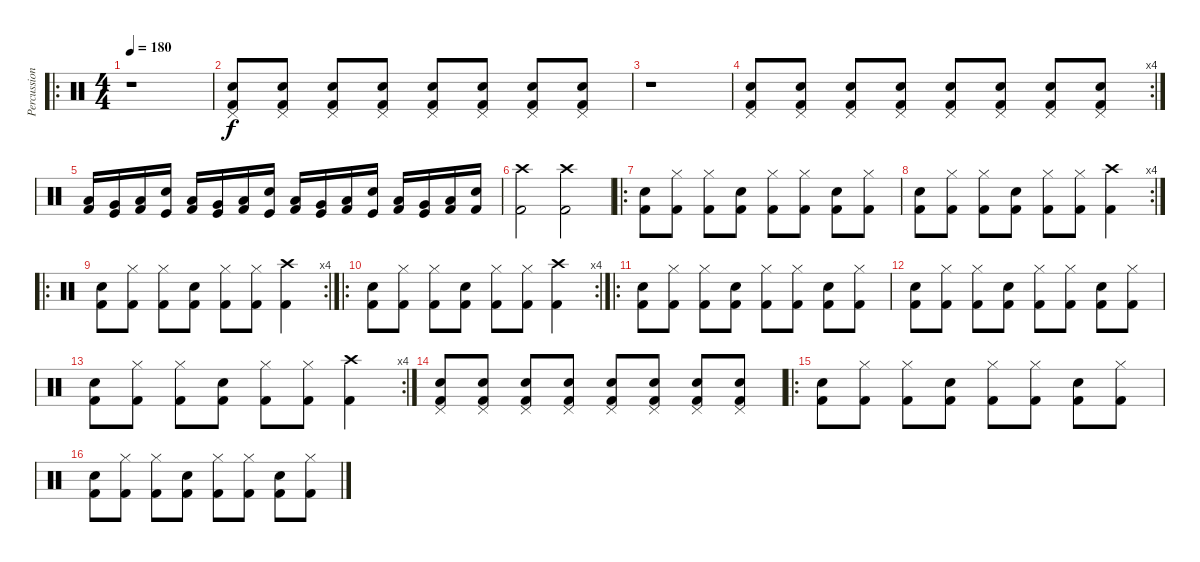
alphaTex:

\track ("Percussion" "Percussion") {instrument percussion}
\staff {score}
\articulation defaults
\ro
\ts (4 4)
\tempo 180
\clef neutral
\ks c
r.1{dy f} |
("Pedal Hi-Hat (hit)" "Electric Snare (hit)" "Kick (hit) 2").8 ("Pedal Hi-Hat (hit)" "Electric Snare (hit)" "Kick (hit) 2").8 ("Pedal Hi-Hat (hit)" "Electric Snare (hit)" "Kick (hit) 2").8 ("Pedal Hi-Hat (hit)" "Electric Snare (hit)" "Kick (hit) 2").8 ("Pedal Hi-Hat (hit)" "Electric Snare (hit)" "Kick (hit) 2").8 ("Pedal Hi-Hat (hit)" "Electric Snare (hit)" "Kick (hit) 2").8 ("Pedal Hi-Hat (hit)" "Electric Snare (hit)" "Kick (hit) 2").8 ("Pedal Hi-Hat (hit)" "Electric Snare (hit)" "Kick (hit) 2").8 |
r.1 |
\rc 4
("Pedal Hi-Hat (hit)" "Electric Snare (hit)" "Kick (hit) 2").8 ("Pedal Hi-Hat (hit)" "Electric Snare (hit)" "Kick (hit) 2").8 ("Pedal Hi-Hat (hit)" "Electric Snare (hit)" "Kick (hit) 2").8 ("Pedal Hi-Hat (hit)" "Electric Snare (hit)" "Kick (hit) 2").8 ("Pedal Hi-Hat (hit)" "Electric Snare (hit)" "Kick (hit) 2").8 ("Pedal Hi-Hat (hit)" "Electric Snare (hit)" "Kick (hit) 2").8 ("Pedal Hi-Hat (hit)" "Electric Snare (hit)" "Kick (hit) 2").8 ("Pedal Hi-Hat (hit)" "Electric Snare (hit)" "Kick (hit) 2").8 |
("Low Tom (hit)" "Kick (hit) 2").16 ("Very Low Tom (hit)" "Kick (hit)").16 ("Low Floor Tom (hit)" "Kick (hit) 2").16 ("Electric Snare (hit)" "Kick (hit)").16 ("Low Tom (hit)" "Kick (hit) 2").16 ("Very Low Tom (hit)" "Kick (hit)").16 ("Low Floor Tom (hit)" "Kick (hit) 2").16 ("Electric Snare (hit)" "Kick (hit)").16 ("Low Tom (hit)" "Kick (hit) 2").16 ("Very Low Tom (hit)" "Kick (hit)").16 ("Low Floor Tom (hit)" "Kick (hit) 2").16 ("Electric Snare (hit)" "Kick (hit)").16 ("Low Tom (hit)" "Kick (hit) 2").16 ("Very Low Tom (hit)" "Kick (hit)").16 ("Low Floor Tom (hit)" "Kick (hit) 2").16 ("Electric Snare (hit)" "Kick (hit) 2").16 |
("Crash high (hit)" "Kick (hit) 2").2 ("Crash high (hit)" "Kick (hit) 2").2 |
\ro
("Electric Snare (hit)" "Kick (hit) 2").8 ("Hi-Hat (closed)" "Kick (hit) 2").8 ("Hi-Hat (closed)" "Kick (hit) 2").8 ("Electric Snare (hit)" "Kick (hit) 2").8 ("Hi-Hat (closed)" "Kick (hit) 2").8 ("Hi-Hat (closed)" "Kick (hit) 2").8 ("Electric Snare (hit)" "Kick (hit) 2").8 ("Hi-Hat (closed)" "Kick (hit) 2").8 |
\rc 4
("Electric Snare (hit)" "Kick (hit) 2").8 ("Hi-Hat (closed)" "Kick (hit) 2").8 ("Hi-Hat (closed)" "Kick (hit) 2").8 ("Electric Snare (hit)" "Kick (hit) 2").8 ("Hi-Hat (closed)" "Kick (hit) 2").8 ("Hi-Hat (closed)" "Kick (hit) 2").8 ("Crash high (hit)" "Kick (hit) 2").4 |
\ro
\rc 4
("Electric Snare (hit)" "Kick (hit) 2").8 ("Hi-Hat (closed)" "Kick (hit) 2").8 ("Hi-Hat (closed)" "Kick (hit) 2").8 ("Electric Snare (hit)" "Kick (hit) 2").8 ("Hi-Hat (closed)" "Kick (hit) 2").8 ("Hi-Hat (closed)" "Kick (hit) 2").8 ("Crash high (hit)" "Kick (hit) 2").4 |
\ro
\rc 4
("Electric Snare (hit)" "Kick (hit) 2").8 ("Hi-Hat (closed)" "Kick (hit) 2").8 ("Hi-Hat (closed)" "Kick (hit) 2").8 ("Electric Snare (hit)" "Kick (hit) 2").8 ("Hi-Hat (closed)" "Kick (hit) 2").8 ("Hi-Hat (closed)" "Kick (hit) 2").8 ("Crash high (hit)" "Kick (hit) 2").4 |
\ro
("Electric Snare (hit)" "Kick (hit) 2").8 ("Hi-Hat (closed)" "Kick (hit) 2").8 ("Hi-Hat (closed)" "Kick (hit) 2").8 ("Electric Snare (hit)" "Kick (hit) 2").8 ("Hi-Hat (closed)" "Kick (hit) 2").8 ("Hi-Hat (closed)" "Kick (hit) 2").8 ("Electric Snare (hit)" "Kick (hit) 2").8 ("Hi-Hat (closed)" "Kick (hit) 2").8 |
("Electric Snare (hit)" "Kick (hit) 2").8 ("Hi-Hat (closed)" "Kick (hit) 2").8 ("Hi-Hat (closed)" "Kick (hit) 2").8 ("Electric Snare (hit)" "Kick (hit) 2").8 ("Hi-Hat (closed)" "Kick (hit) 2").8 ("Hi-Hat (closed)" "Kick (hit) 2").8 ("Electric Snare (hit)" "Kick (hit) 2").8 ("Hi-Hat (closed)" "Kick (hit) 2").8 |
\rc 4
("Electric Snare (hit)" "Kick (hit) 2").8 ("Hi-Hat (closed)" "Kick (hit) 2").8 ("Hi-Hat (closed)" "Kick (hit) 2").8 ("Electric Snare (hit)" "Kick (hit) 2").8 ("Hi-Hat (closed)" "Kick (hit) 2").8 ("Hi-Hat (closed)" "Kick (hit) 2").8 ("Crash high (hit)" "Kick (hit) 2").4 |
("Pedal Hi-Hat (hit)" "Electric Snare (hit)" "Kick (hit) 2").8 ("Pedal Hi-Hat (hit)" "Electric Snare (hit)" "Kick (hit) 2").8 ("Pedal Hi-Hat (hit)" "Electric Snare (hit)" "Kick (hit) 2").8 ("Pedal Hi-Hat (hit)" "Electric Snare (hit)" "Kick (hit) 2").8 ("Pedal Hi-Hat (hit)" "Electric Snare (hit)" "Kick (hit) 2").8 ("Pedal Hi-Hat (hit)" "Electric Snare (hit)" "Kick (hit) 2").8 ("Pedal Hi-Hat (hit)" "Electric Snare (hit)" "Kick (hit) 2").8 ("Pedal Hi-Hat (hit)" "Electric Snare (hit)" "Kick (hit) 2").8 |
\ro
("Electric Snare (hit)" "Kick (hit) 2").8 ("Hi-Hat (closed)" "Kick (hit) 2").8 ("Hi-Hat (closed)" "Kick (hit) 2").8 ("Electric Snare (hit)" "Kick (hit) 2").8 ("Hi-Hat (closed)" "Kick (hit) 2").8 ("Hi-Hat (closed)" "Kick (hit) 2").8 ("Electric Snare (hit)" "Kick (hit) 2").8 ("Hi-Hat (closed)" "Kick (hit) 2").8 |
("Electric Snare (hit)" "Kick (hit) 2").8 ("Hi-Hat (closed)" "Kick (hit) 2").8 ("Hi-Hat (closed)" "Kick (hit) 2").8 ("Electric Snare (hit)" "Kick (hit) 2").8 ("Hi-Hat (closed)" "Kick (hit) 2").8 ("Hi-Hat (closed)" "Kick (hit) 2").8 ("Electric Snare (hit)" "Kick (hit) 2").8 ("Hi-Hat (closed)" "Kick (hit) 2").8
